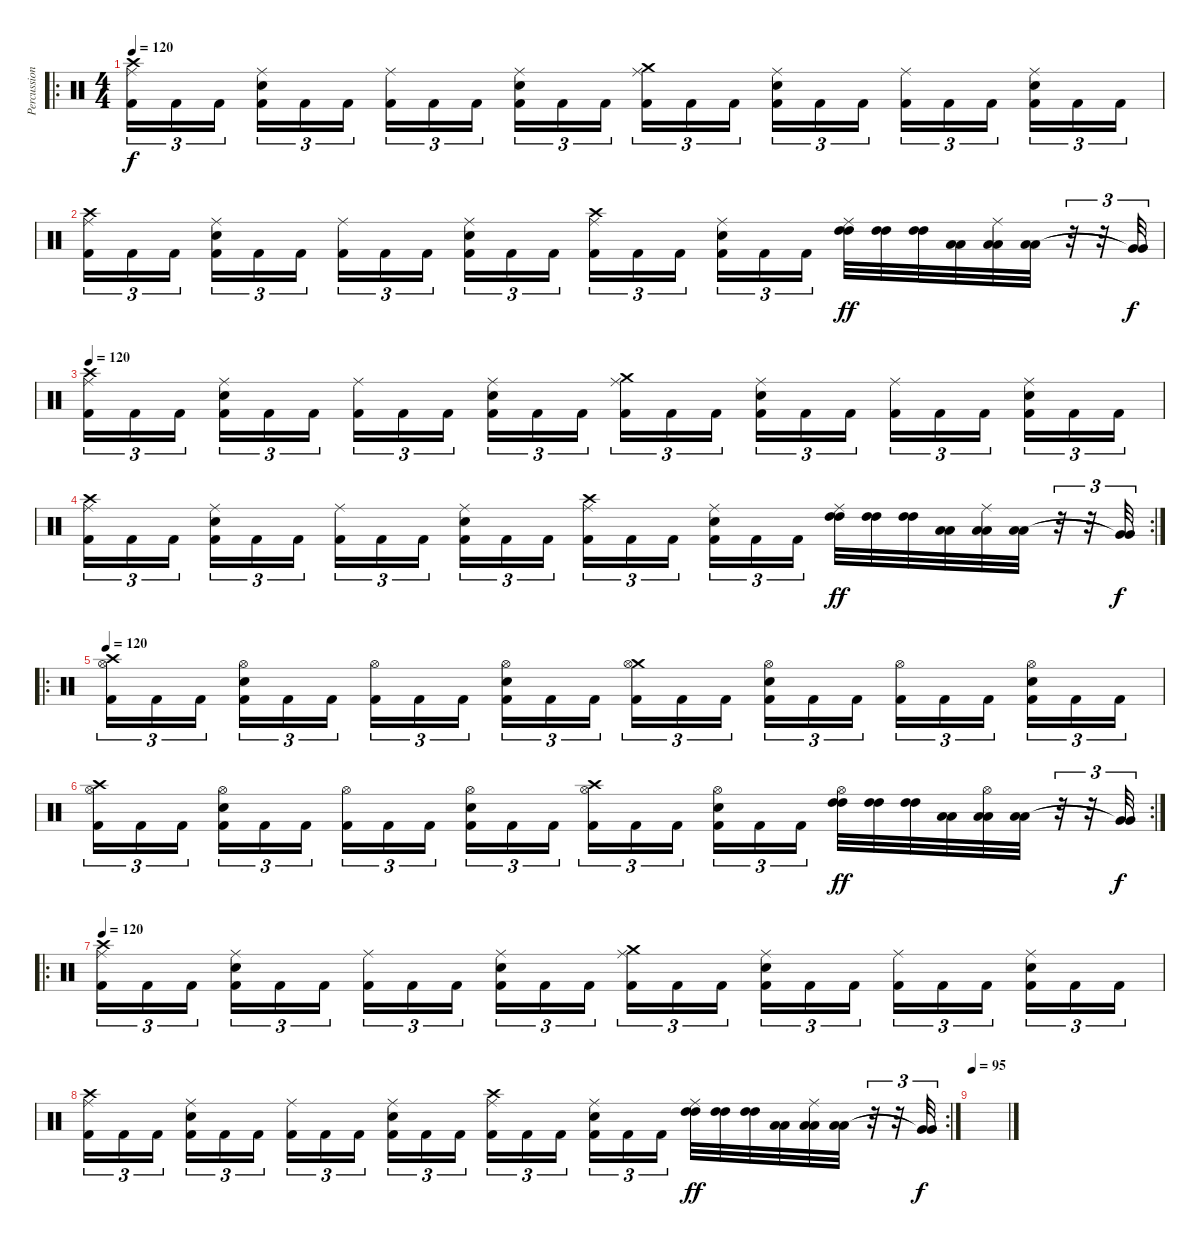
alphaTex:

\track ("Percussion" "Percussion") {instrument percussion}
\staff {score}
\articulation defaults
\ro
\ts (4 4)
\tempo 120
\clef neutral
\ks c
("Crash high (hit)" "Ride (middle)" "Kick (hit) 2").16{tu (3 2) dy f} "Kick (hit) 2".16{tu (3 2)} "Kick (hit) 2".16{tu (3 2)} ("Ride (middle)" "Electric Snare (hit)" "Kick (hit) 2").16{tu (3 2)} "Kick (hit) 2".16{tu (3 2)} "Kick (hit) 2".16{tu (3 2)} ("Ride (middle)" "Kick (hit) 2").16{tu (3 2)} "Kick (hit) 2".16{tu (3 2)} "Kick (hit) 2".16{tu (3 2)} ("Ride (middle)" "Electric Snare (hit)" "Kick (hit) 2").16{tu (3 2)} "Kick (hit) 2".16{tu (3 2)} "Kick (hit) 2".16{tu (3 2)} ("Crash medium (hit)" "Ride (middle)" "Kick (hit) 2").16{tu (3 2)} "Kick (hit) 2".16{tu (3 2)} "Kick (hit) 2".16{tu (3 2)} ("Ride (middle)" "Electric Snare (hit)" "Kick (hit) 2").16{tu (3 2)} "Kick (hit) 2".16{tu (3 2)} "Kick (hit) 2".16{tu (3 2)} ("Ride (middle)" "Kick (hit) 2").16{tu (3 2)} "Kick (hit) 2".16{tu (3 2)} "Kick (hit) 2".16{tu (3 2)} ("Ride (middle)" "Electric Snare (hit)" "Kick (hit) 2").16{tu (3 2)} "Kick (hit) 2".16{tu (3 2)} "Kick (hit) 2".16{tu (3 2)} |
("Crash high (hit)" "Ride (middle)" "Kick (hit) 2").16{tu (3 2)} "Kick (hit) 2".16{tu (3 2)} "Kick (hit) 2".16{tu (3 2)} ("Ride (middle)" "Electric Snare (hit)" "Kick (hit) 2").16{tu (3 2)} "Kick (hit) 2".16{tu (3 2)} "Kick (hit) 2".16{tu (3 2)} ("Ride (middle)" "Kick (hit) 2").16{tu (3 2)} "Kick (hit) 2".16{tu (3 2)} "Kick (hit) 2".16{tu (3 2)} ("Ride (middle)" "Electric Snare (hit)" "Kick (hit) 2").16{tu (3 2)} "Kick (hit) 2".16{tu (3 2)} "Kick (hit) 2".16{tu (3 2)} ("Crash high (hit)" "Ride (middle)" "Kick (hit) 2").16{tu (3 2)} "Kick (hit) 2".16{tu (3 2)} "Kick (hit) 2".16{tu (3 2)} ("Ride (middle)" "Electric Snare (hit)" "Kick (hit) 2").16{tu (3 2)} "Kick (hit) 2".16{tu (3 2)} "Kick (hit) 2".16{tu (3 2)} ("Ride (middle)" "High Tom (hit)" "High Tom (hit)").32{dy ff} ("High Tom (hit)" "High Tom (hit)").32 ("High Tom (hit)" "High Tom (hit)").32 ("Low Tom (hit)" "Low Tom (hit)").32 ("Ride (middle)" "Low Tom (hit)" "Low Tom (hit)").32 ("Low Tom (hit)" "Low Tom (hit)").32 r.32{tu (3 2)} r.32{tu (3 2)} ("Very Low Tom (hit)"{t} "Very Low Tom (hit)"{t}).32{tu (3 2) dy f} |
\tempo 120
("Crash high (hit)" "Ride (middle)" "Kick (hit) 2").16{tu (3 2)} "Kick (hit) 2".16{tu (3 2)} "Kick (hit) 2".16{tu (3 2)} ("Ride (middle)" "Electric Snare (hit)" "Kick (hit) 2").16{tu (3 2)} "Kick (hit) 2".16{tu (3 2)} "Kick (hit) 2".16{tu (3 2)} ("Ride (middle)" "Kick (hit) 2").16{tu (3 2)} "Kick (hit) 2".16{tu (3 2)} "Kick (hit) 2".16{tu (3 2)} ("Ride (middle)" "Electric Snare (hit)" "Kick (hit) 2").16{tu (3 2)} "Kick (hit) 2".16{tu (3 2)} "Kick (hit) 2".16{tu (3 2)} ("Crash medium (hit)" "Ride (middle)" "Kick (hit) 2").16{tu (3 2)} "Kick (hit) 2".16{tu (3 2)} "Kick (hit) 2".16{tu (3 2)} ("Ride (middle)" "Electric Snare (hit)" "Kick (hit) 2").16{tu (3 2)} "Kick (hit) 2".16{tu (3 2)} "Kick (hit) 2".16{tu (3 2)} ("Ride (middle)" "Kick (hit) 2").16{tu (3 2)} "Kick (hit) 2".16{tu (3 2)} "Kick (hit) 2".16{tu (3 2)} ("Ride (middle)" "Electric Snare (hit)" "Kick (hit) 2").16{tu (3 2)} "Kick (hit) 2".16{tu (3 2)} "Kick (hit) 2".16{tu (3 2)} |
\rc 2
("Crash high (hit)" "Ride (middle)" "Kick (hit) 2").16{tu (3 2)} "Kick (hit) 2".16{tu (3 2)} "Kick (hit) 2".16{tu (3 2)} ("Ride (middle)" "Electric Snare (hit)" "Kick (hit) 2").16{tu (3 2)} "Kick (hit) 2".16{tu (3 2)} "Kick (hit) 2".16{tu (3 2)} ("Ride (middle)" "Kick (hit) 2").16{tu (3 2)} "Kick (hit) 2".16{tu (3 2)} "Kick (hit) 2".16{tu (3 2)} ("Ride (middle)" "Electric Snare (hit)" "Kick (hit) 2").16{tu (3 2)} "Kick (hit) 2".16{tu (3 2)} "Kick (hit) 2".16{tu (3 2)} ("Crash high (hit)" "Ride (middle)" "Kick (hit) 2").16{tu (3 2)} "Kick (hit) 2".16{tu (3 2)} "Kick (hit) 2".16{tu (3 2)} ("Ride (middle)" "Electric Snare (hit)" "Kick (hit) 2").16{tu (3 2)} "Kick (hit) 2".16{tu (3 2)} "Kick (hit) 2".16{tu (3 2)} ("Ride (middle)" "High Tom (hit)" "High Tom (hit)").32{dy ff} ("High Tom (hit)" "High Tom (hit)").32 ("High Tom (hit)" "High Tom (hit)").32 ("Low Tom (hit)" "Low Tom (hit)").32 ("Ride (middle)" "Low Tom (hit)" "Low Tom (hit)").32 ("Low Tom (hit)" "Low Tom (hit)").32 r.32{tu (3 2)} r.32{tu (3 2)} ("Very Low Tom (hit)"{t} "Very Low Tom (hit)"{t}).32{tu (3 2) dy f} |
\ro
\tempo 120
("Crash high (hit)" "Hi-Hat (open)" "Kick (hit) 2").16{tu (3 2)} "Kick (hit) 2".16{tu (3 2)} "Kick (hit) 2".16{tu (3 2)} ("Hi-Hat (open)" "Electric Snare (hit)" "Kick (hit) 2").16{tu (3 2)} "Kick (hit) 2".16{tu (3 2)} "Kick (hit) 2".16{tu (3 2)} ("Hi-Hat (open)" "Kick (hit) 2").16{tu (3 2)} "Kick (hit) 2".16{tu (3 2)} "Kick (hit) 2".16{tu (3 2)} ("Hi-Hat (open)" "Electric Snare (hit)" "Kick (hit) 2").16{tu (3 2)} "Kick (hit) 2".16{tu (3 2)} "Kick (hit) 2".16{tu (3 2)} ("Crash medium (hit)" "Hi-Hat (open)" "Kick (hit) 2").16{tu (3 2)} "Kick (hit) 2".16{tu (3 2)} "Kick (hit) 2".16{tu (3 2)} ("Hi-Hat (open)" "Electric Snare (hit)" "Kick (hit) 2").16{tu (3 2)} "Kick (hit) 2".16{tu (3 2)} "Kick (hit) 2".16{tu (3 2)} ("Hi-Hat (open)" "Kick (hit) 2").16{tu (3 2)} "Kick (hit) 2".16{tu (3 2)} "Kick (hit) 2".16{tu (3 2)} ("Hi-Hat (open)" "Electric Snare (hit)" "Kick (hit) 2").16{tu (3 2)} "Kick (hit) 2".16{tu (3 2)} "Kick (hit) 2".16{tu (3 2)} |
\rc 2
("Crash high (hit)" "Hi-Hat (open)" "Kick (hit) 2").16{tu (3 2)} "Kick (hit) 2".16{tu (3 2)} "Kick (hit) 2".16{tu (3 2)} ("Hi-Hat (open)" "Electric Snare (hit)" "Kick (hit) 2").16{tu (3 2)} "Kick (hit) 2".16{tu (3 2)} "Kick (hit) 2".16{tu (3 2)} ("Hi-Hat (open)" "Kick (hit) 2").16{tu (3 2)} "Kick (hit) 2".16{tu (3 2)} "Kick (hit) 2".16{tu (3 2)} ("Hi-Hat (open)" "Electric Snare (hit)" "Kick (hit) 2").16{tu (3 2)} "Kick (hit) 2".16{tu (3 2)} "Kick (hit) 2".16{tu (3 2)} ("Crash high (hit)" "Hi-Hat (open)" "Kick (hit) 2").16{tu (3 2)} "Kick (hit) 2".16{tu (3 2)} "Kick (hit) 2".16{tu (3 2)} ("Hi-Hat (open)" "Electric Snare (hit)" "Kick (hit) 2").16{tu (3 2)} "Kick (hit) 2".16{tu (3 2)} "Kick (hit) 2".16{tu (3 2)} ("Hi-Hat (open)" "High Tom (hit)" "High Tom (hit)").32{dy ff} ("High Tom (hit)" "High Tom (hit)").32 ("High Tom (hit)" "High Tom (hit)").32 ("Low Tom (hit)" "Low Tom (hit)").32 ("Hi-Hat (open)" "Low Tom (hit)" "Low Tom (hit)").32 ("Low Tom (hit)" "Low Tom (hit)").32 r.32{tu (3 2)} r.32{tu (3 2)} ("Very Low Tom (hit)"{t} "Very Low Tom (hit)"{t}).32{tu (3 2) dy f} |
\ro
\tempo 120
("Crash high (hit)" "Ride (middle)" "Kick (hit) 2").16{tu (3 2)} "Kick (hit) 2".16{tu (3 2)} "Kick (hit) 2".16{tu (3 2)} ("Ride (middle)" "Electric Snare (hit)" "Kick (hit) 2").16{tu (3 2)} "Kick (hit) 2".16{tu (3 2)} "Kick (hit) 2".16{tu (3 2)} ("Ride (middle)" "Kick (hit) 2").16{tu (3 2)} "Kick (hit) 2".16{tu (3 2)} "Kick (hit) 2".16{tu (3 2)} ("Ride (middle)" "Electric Snare (hit)" "Kick (hit) 2").16{tu (3 2)} "Kick (hit) 2".16{tu (3 2)} "Kick (hit) 2".16{tu (3 2)} ("Crash medium (hit)" "Ride (middle)" "Kick (hit) 2").16{tu (3 2)} "Kick (hit) 2".16{tu (3 2)} "Kick (hit) 2".16{tu (3 2)} ("Ride (middle)" "Electric Snare (hit)" "Kick (hit) 2").16{tu (3 2)} "Kick (hit) 2".16{tu (3 2)} "Kick (hit) 2".16{tu (3 2)} ("Ride (middle)" "Kick (hit) 2").16{tu (3 2)} "Kick (hit) 2".16{tu (3 2)} "Kick (hit) 2".16{tu (3 2)} ("Ride (middle)" "Electric Snare (hit)" "Kick (hit) 2").16{tu (3 2)} "Kick (hit) 2".16{tu (3 2)} "Kick (hit) 2".16{tu (3 2)} |
\rc 2
("Crash high (hit)" "Ride (middle)" "Kick (hit) 2").16{tu (3 2)} "Kick (hit) 2".16{tu (3 2)} "Kick (hit) 2".16{tu (3 2)} ("Ride (middle)" "Electric Snare (hit)" "Kick (hit) 2").16{tu (3 2)} "Kick (hit) 2".16{tu (3 2)} "Kick (hit) 2".16{tu (3 2)} ("Ride (middle)" "Kick (hit) 2").16{tu (3 2)} "Kick (hit) 2".16{tu (3 2)} "Kick (hit) 2".16{tu (3 2)} ("Ride (middle)" "Electric Snare (hit)" "Kick (hit) 2").16{tu (3 2)} "Kick (hit) 2".16{tu (3 2)} "Kick (hit) 2".16{tu (3 2)} ("Crash high (hit)" "Ride (middle)" "Kick (hit) 2").16{tu (3 2)} "Kick (hit) 2".16{tu (3 2)} "Kick (hit) 2".16{tu (3 2)} ("Ride (middle)" "Electric Snare (hit)" "Kick (hit) 2").16{tu (3 2)} "Kick (hit) 2".16{tu (3 2)} "Kick (hit) 2".16{tu (3 2)} ("Ride (middle)" "High Tom (hit)" "High Tom (hit)").32{dy ff} ("High Tom (hit)" "High Tom (hit)").32 ("High Tom (hit)" "High Tom (hit)").32 ("Low Tom (hit)" "Low Tom (hit)").32 ("Ride (middle)" "Low Tom (hit)" "Low Tom (hit)").32 ("Low Tom (hit)" "Low Tom (hit)").32 r.32{tu (3 2)} r.32{tu (3 2)} ("Very Low Tom (hit)"{t} "Very Low Tom (hit)"{t}).32{tu (3 2) dy f} |
\tempo 95
